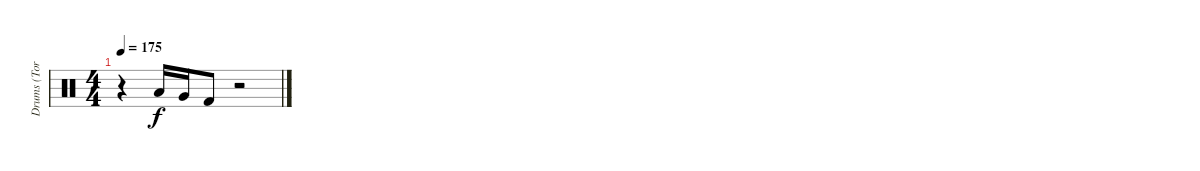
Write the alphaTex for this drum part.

\track ("Drums (Tora)" "Drums (Tor") {instrument percussion}
\staff {score}
\articulation defaults
\ts (4 4)
\tempo 175
\clef neutral
\ks c
r.4{dy f} "Low Tom (hit)".16 "Very Low Tom (hit)".16 "Kick (hit) 2".8 r.2
